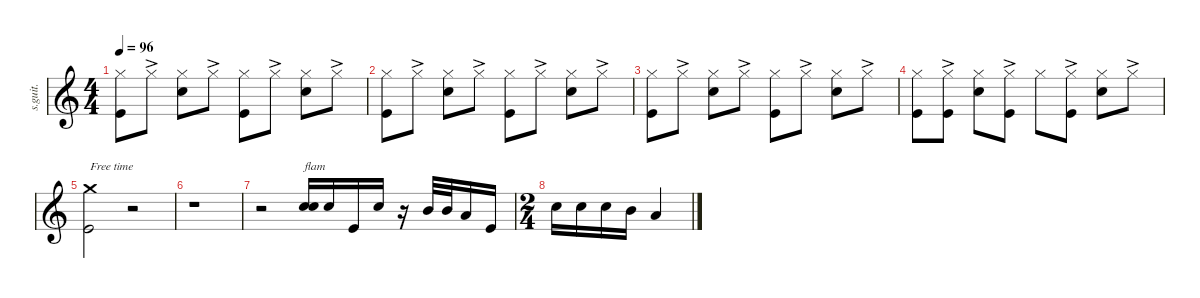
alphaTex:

\defaultSystemsLayout 4
\hideDynamics
\bracketExtendMode nobrackets
\track ("Chad Smith" "s.guit.") {instrument percussion}
\staff {score}
\articulation defaults
\ts (4 4)
\tempo 96
\clef g2
\ks c
("Hi-Hat (closed)" "Kick (hit)").8{dy f} "Hi-Hat (closed)"{ac}.8 ("Hi-Hat (closed)" "Snare (hit) 2").8 "Hi-Hat (closed)"{ac}.8 ("Hi-Hat (closed)" "Kick (hit)").8 "Hi-Hat (closed)"{ac}.8 ("Hi-Hat (closed)" "Snare (hit) 2").8 "Hi-Hat (closed)"{ac}.8 |
("Hi-Hat (closed)" "Kick (hit)").8 "Hi-Hat (closed)"{ac}.8 ("Hi-Hat (closed)" "Snare (hit) 2").8 "Hi-Hat (closed)"{ac}.8 ("Hi-Hat (closed)" "Kick (hit)").8 "Hi-Hat (closed)"{ac}.8 ("Hi-Hat (closed)" "Snare (hit) 2").8 "Hi-Hat (closed)"{ac}.8 |
("Hi-Hat (closed)" "Kick (hit)").8 "Hi-Hat (closed)"{ac}.8 ("Hi-Hat (closed)" "Snare (hit) 2").8 "Hi-Hat (closed)"{ac}.8 ("Hi-Hat (closed)" "Kick (hit)").8 "Hi-Hat (closed)"{ac}.8 ("Hi-Hat (closed)" "Snare (hit) 2").8 "Hi-Hat (closed)"{ac}.8 |
("Hi-Hat (closed)" "Kick (hit)").8 ("Hi-Hat (closed)"{ac} "Kick (hit)").8 ("Hi-Hat (closed)" "Snare (hit) 2").8 ("Hi-Hat (closed)"{ac} "Kick (hit)").8 "Hi-Hat (closed)".8 ("Hi-Hat (closed)"{ac} "Kick (hit)").8 ("Hi-Hat (closed)" "Snare (hit) 2").8 "Hi-Hat (closed)"{ac}.8 |
("Crash medium (hit)" "Kick (hit)").2{txt "Free time"} r.2 |
r.1 |
r.2 ("Snare (hit) 2" "Snare (hit) 2").16{bd 30 txt "flam"} "Snare (hit) 2".16 "Kick (hit)".16 "Snare (hit) 2".16 r.16 "Mid Tom (hit)".32 "Mid Tom (hit)".32 "Low Tom (hit)".16 "Kick (hit)".16 |
\ts (2 4)
\beaming (8 2 2 2 2)
"Snare (hit) 2".16 "Snare (hit) 2".16 "Snare (hit) 2".16 "Mid Tom (hit)".16 "Low Tom (hit)".4
